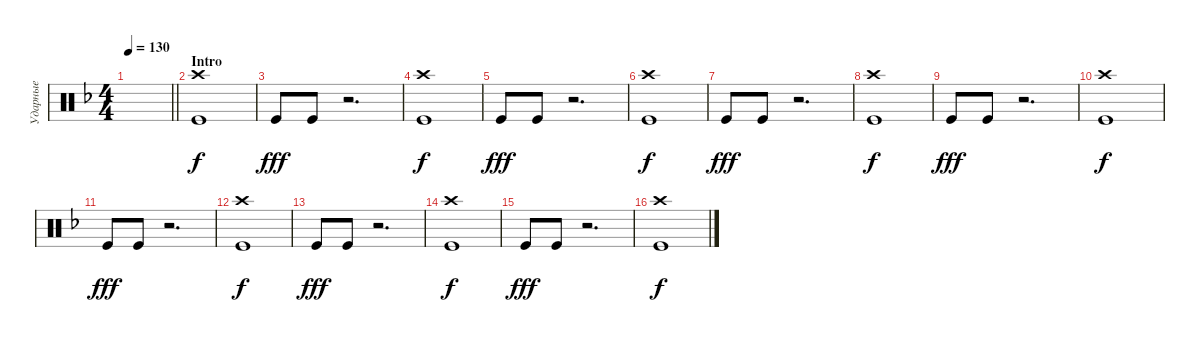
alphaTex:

\track ("Ударные" "Ударные") {instrument percussion}
\staff {score}
\articulation defaults
\ts (4 4)
\tempo 130
\clef neutral
\barLineRight lightlight
\ks dminor
|
\section ("" "Intro")
("Kick (hit)" "Crash high (hit)").1 |
"Kick (hit)".8{dy fff} "Kick (hit)".8 r.2{d} |
("Kick (hit)" "Crash high (hit)").1{dy f} |
"Kick (hit)".8{dy fff} "Kick (hit)".8 r.2{d} |
("Kick (hit)" "Crash high (hit)").1{dy f} |
"Kick (hit)".8{dy fff} "Kick (hit)".8 r.2{d} |
("Kick (hit)" "Crash high (hit)").1{dy f} |
"Kick (hit)".8{dy fff} "Kick (hit)".8 r.2{d} |
("Kick (hit)" "Crash high (hit)").1{dy f} |
"Kick (hit)".8{dy fff} "Kick (hit)".8 r.2{d} |
("Kick (hit)" "Crash high (hit)").1{dy f} |
"Kick (hit)".8{dy fff} "Kick (hit)".8 r.2{d} |
("Kick (hit)" "Crash high (hit)").1{dy f} |
"Kick (hit)".8{dy fff} "Kick (hit)".8 r.2{d} |
("Kick (hit)" "Crash high (hit)").1{dy f}
